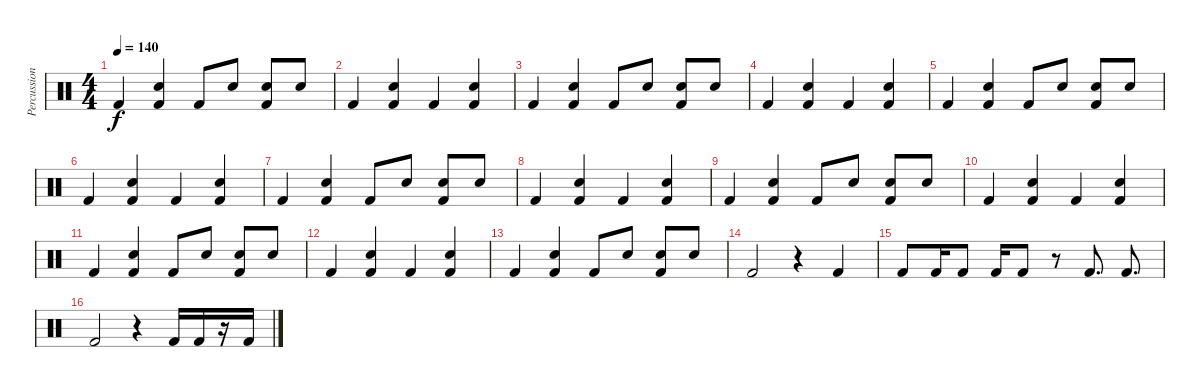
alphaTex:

\track ("Percussion" "Percussion") {instrument percussion}
\staff {score}
\articulation defaults
\ts (4 4)
\tempo 140
\clef neutral
\ks c "Kick (hit) 2".4{dy f}
("Hand Clap (hit)" "Kick (hit) 2").4 "Kick (hit) 2".8 "Hand Clap (hit)".8 ("Hand Clap (hit)" "Kick (hit) 2").8 "Hand Clap (hit)".8 |
"Kick (hit) 2".4 ("Hand Clap (hit)" "Kick (hit) 2").4 "Kick (hit) 2".4 ("Hand Clap (hit)" "Kick (hit) 2").4 |
"Kick (hit) 2".4 ("Hand Clap (hit)" "Kick (hit) 2").4 "Kick (hit) 2".8 "Hand Clap (hit)".8 ("Hand Clap (hit)" "Kick (hit) 2").8 "Hand Clap (hit)".8 |
"Kick (hit) 2".4 ("Hand Clap (hit)" "Kick (hit) 2").4 "Kick (hit) 2".4 ("Hand Clap (hit)" "Kick (hit) 2").4 |
"Kick (hit) 2".4 ("Hand Clap (hit)" "Kick (hit) 2").4 "Kick (hit) 2".8 "Hand Clap (hit)".8 ("Hand Clap (hit)" "Kick (hit) 2").8 "Hand Clap (hit)".8 |
"Kick (hit) 2".4 ("Hand Clap (hit)" "Kick (hit) 2").4 "Kick (hit) 2".4 ("Hand Clap (hit)" "Kick (hit) 2").4 |
"Kick (hit) 2".4 ("Hand Clap (hit)" "Kick (hit) 2").4 "Kick (hit) 2".8 "Hand Clap (hit)".8 ("Hand Clap (hit)" "Kick (hit) 2").8 "Hand Clap (hit)".8 |
"Kick (hit) 2".4 ("Hand Clap (hit)" "Kick (hit) 2").4 "Kick (hit) 2".4 ("Hand Clap (hit)" "Kick (hit) 2").4 |
"Kick (hit) 2".4 ("Hand Clap (hit)" "Kick (hit) 2").4 "Kick (hit) 2".8 "Hand Clap (hit)".8 ("Hand Clap (hit)" "Kick (hit) 2").8 "Hand Clap (hit)".8 |
"Kick (hit) 2".4 ("Hand Clap (hit)" "Kick (hit) 2").4 "Kick (hit) 2".4 ("Hand Clap (hit)" "Kick (hit) 2").4 |
"Kick (hit) 2".4 ("Hand Clap (hit)" "Kick (hit) 2").4 "Kick (hit) 2".8 "Hand Clap (hit)".8 ("Hand Clap (hit)" "Kick (hit) 2").8 "Hand Clap (hit)".8 |
"Kick (hit) 2".4 ("Hand Clap (hit)" "Kick (hit) 2").4 "Kick (hit) 2".4 ("Hand Clap (hit)" "Kick (hit) 2").4 |
"Kick (hit) 2".4 ("Hand Clap (hit)" "Kick (hit) 2").4 "Kick (hit) 2".8 "Hand Clap (hit)".8 ("Hand Clap (hit)" "Kick (hit) 2").8 "Hand Clap (hit)".8 |
"Kick (hit) 2".2 r.4 "Kick (hit) 2".4 |
"Kick (hit) 2".8 "Kick (hit) 2".16 "Kick (hit) 2".8 "Kick (hit) 2".16 "Kick (hit) 2".8 r.8 "Kick (hit) 2".8{d} "Kick (hit) 2".8{d} |
"Kick (hit) 2".2 r.4 "Kick (hit) 2".16 "Kick (hit) 2".16 r.16 "Kick (hit) 2".16
